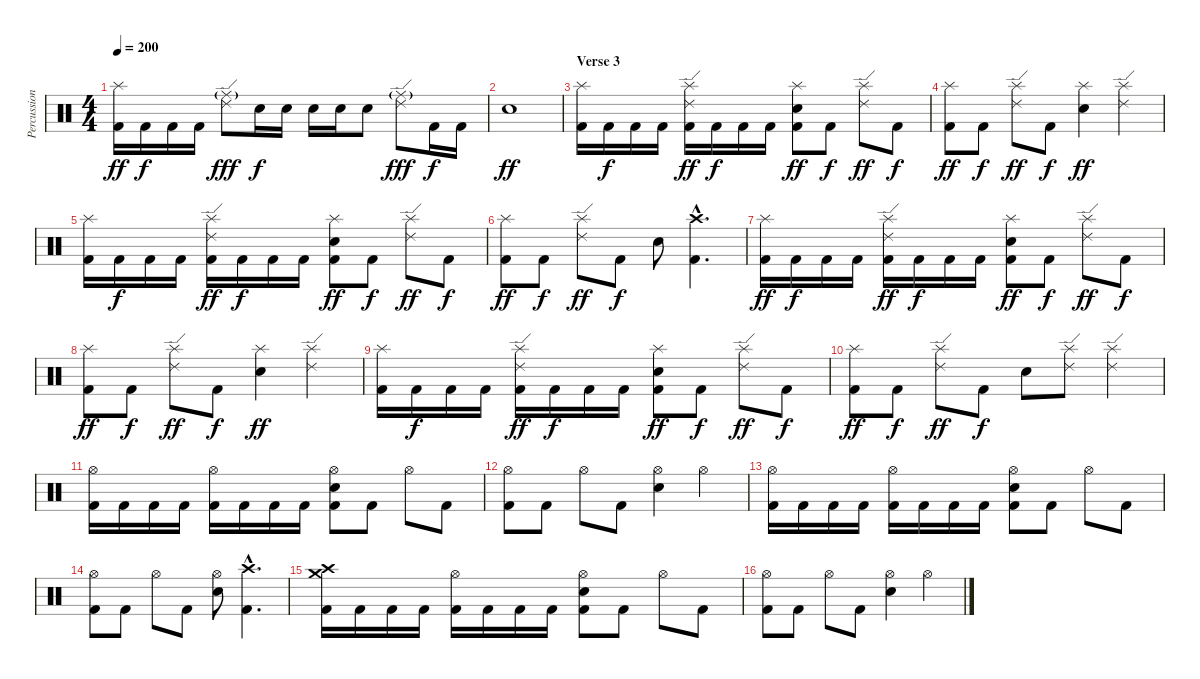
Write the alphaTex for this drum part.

\track ("Percussions" "Percussion") {instrument percussion}
\staff {score}
\articulation defaults
\ts (4 4)
\tempo 200
\clef neutral
\ks c
("Splash (hit)" "Kick (hit) 2").16{dy ff} "Kick (hit) 2".16{dy f} "Kick (hit) 2".16 "Kick (hit) 2".16 ("Ride (middle)"{g} "Ride (edge) 2").8{dy fff} "Electric Snare (hit)".16{dy f} "Electric Snare (hit)".16 "Electric Snare (hit)".16 "Electric Snare (hit)".16 "Electric Snare (hit)".8 ("Ride (middle)"{g} "Ride (edge) 2").8{dy fff} "Kick (hit) 2".16{dy f} "Kick (hit) 2".16 |
"Electric Snare (hit)".1{dy ff} |
\section ("" "Verse 3")
("Splash (hit)" "Kick (hit) 2").16 "Kick (hit) 2".16{dy f} "Kick (hit) 2".16 "Kick (hit) 2".16 ("Ride (edge) 2" "Splash (hit)" "Kick (hit) 2").16{dy ff} "Kick (hit) 2".16{dy f} "Kick (hit) 2".16 "Kick (hit) 2".16 ("Splash (hit)" "Electric Snare (hit)" "Kick (hit) 2").8{dy ff} "Kick (hit) 2".8{dy f} ("Ride (edge) 2" "Splash (hit)").8{dy ff} "Kick (hit) 2".8{dy f} |
("Splash (hit)" "Kick (hit) 2").8{dy ff} "Kick (hit) 2".8{dy f} ("Ride (edge) 2" "Splash (hit)").8{dy ff} "Kick (hit) 2".8{dy f} ("Splash (hit)" "Electric Snare (hit)").4{dy ff} ("Ride (edge) 2" "Splash (hit)").4 |
("Splash (hit)" "Kick (hit) 2").16 "Kick (hit) 2".16{dy f} "Kick (hit) 2".16 "Kick (hit) 2".16 ("Ride (edge) 2" "Splash (hit)" "Kick (hit) 2").16{dy ff} "Kick (hit) 2".16{dy f} "Kick (hit) 2".16 "Kick (hit) 2".16 ("Splash (hit)" "Electric Snare (hit)" "Kick (hit) 2").8{dy ff} "Kick (hit) 2".8{dy f} ("Ride (edge) 2" "Splash (hit)").8{dy ff} "Kick (hit) 2".8{dy f} |
("Splash (hit)" "Kick (hit) 2").8{dy ff} "Kick (hit) 2".8{dy f} ("Ride (edge) 2" "Splash (hit)").8{dy ff} "Kick (hit) 2".8{dy f} "Electric Snare (hit)".8 ("Crash high (hit)"{hac} "Kick (hit) 2"{hac}).4{d} |
("Splash (hit)" "Kick (hit) 2").16{dy ff} "Kick (hit) 2".16{dy f} "Kick (hit) 2".16 "Kick (hit) 2".16 ("Ride (edge) 2" "Splash (hit)" "Kick (hit) 2").16{dy ff} "Kick (hit) 2".16{dy f} "Kick (hit) 2".16 "Kick (hit) 2".16 ("Splash (hit)" "Electric Snare (hit)" "Kick (hit) 2").8{dy ff} "Kick (hit) 2".8{dy f} ("Ride (edge) 2" "Splash (hit)").8{dy ff} "Kick (hit) 2".8{dy f} |
("Splash (hit)" "Kick (hit) 2").8{dy ff} "Kick (hit) 2".8{dy f} ("Ride (edge) 2" "Splash (hit)").8{dy ff} "Kick (hit) 2".8{dy f} ("Splash (hit)" "Electric Snare (hit)").4{dy ff} ("Ride (edge) 2" "Splash (hit)").4 |
("Splash (hit)" "Kick (hit) 2").16 "Kick (hit) 2".16{dy f} "Kick (hit) 2".16 "Kick (hit) 2".16 ("Ride (edge) 2" "Splash (hit)" "Kick (hit) 2").16{dy ff} "Kick (hit) 2".16{dy f} "Kick (hit) 2".16 "Kick (hit) 2".16 ("Splash (hit)" "Electric Snare (hit)" "Kick (hit) 2").8{dy ff} "Kick (hit) 2".8{dy f} ("Ride (edge) 2" "Splash (hit)").8{dy ff} "Kick (hit) 2".8{dy f} |
("Splash (hit)" "Kick (hit) 2").8{dy ff} "Kick (hit) 2".8{dy f} ("Ride (edge) 2" "Splash (hit)").8{dy ff} "Kick (hit) 2".8{dy f} "Electric Snare (hit)".8 ("Ride (edge) 2" "Splash (hit)").8 ("Ride (edge) 2" "Splash (hit)").4 |
("Hi-Hat (open)" "Kick (hit) 2").16 "Kick (hit) 2".16 "Kick (hit) 2".16 "Kick (hit) 2".16 ("Hi-Hat (open)" "Kick (hit) 2").16 "Kick (hit) 2".16 "Kick (hit) 2".16 "Kick (hit) 2".16 ("Hi-Hat (open)" "Electric Snare (hit)" "Kick (hit) 2").8 "Kick (hit) 2".8 "Hi-Hat (open)".8 "Kick (hit) 2".8 |
("Hi-Hat (open)" "Kick (hit) 2").8 "Kick (hit) 2".8 "Hi-Hat (open)".8 "Kick (hit) 2".8 ("Hi-Hat (open)" "Electric Snare (hit)").4 "Hi-Hat (open)".4 |
("Hi-Hat (open)" "Kick (hit) 2").16 "Kick (hit) 2".16 "Kick (hit) 2".16 "Kick (hit) 2".16 ("Hi-Hat (open)" "Kick (hit) 2").16 "Kick (hit) 2".16 "Kick (hit) 2".16 "Kick (hit) 2".16 ("Hi-Hat (open)" "Electric Snare (hit)" "Kick (hit) 2").8 "Kick (hit) 2".8 "Hi-Hat (open)".8 "Kick (hit) 2".8 |
("Hi-Hat (open)" "Kick (hit) 2").8 "Kick (hit) 2".8 "Hi-Hat (open)".8 "Kick (hit) 2".8 ("Hi-Hat (open)" "Electric Snare (hit)").8 ("Crash high (hit)"{hac} "Kick (hit) 2"{hac}).4{d} |
("Crash high (hit)" "Crash medium (hit)" "Kick (hit) 2").16 "Kick (hit) 2".16 "Kick (hit) 2".16 "Kick (hit) 2".16 ("Hi-Hat (open)" "Kick (hit) 2").16 "Kick (hit) 2".16 "Kick (hit) 2".16 "Kick (hit) 2".16 ("Hi-Hat (open)" "Electric Snare (hit)" "Kick (hit) 2").8 "Kick (hit) 2".8 "Hi-Hat (open)".8 "Kick (hit) 2".8 |
("Hi-Hat (open)" "Kick (hit) 2").8 "Kick (hit) 2".8 "Hi-Hat (open)".8 "Kick (hit) 2".8 ("Hi-Hat (open)" "Electric Snare (hit)").4 "Hi-Hat (open)".4
